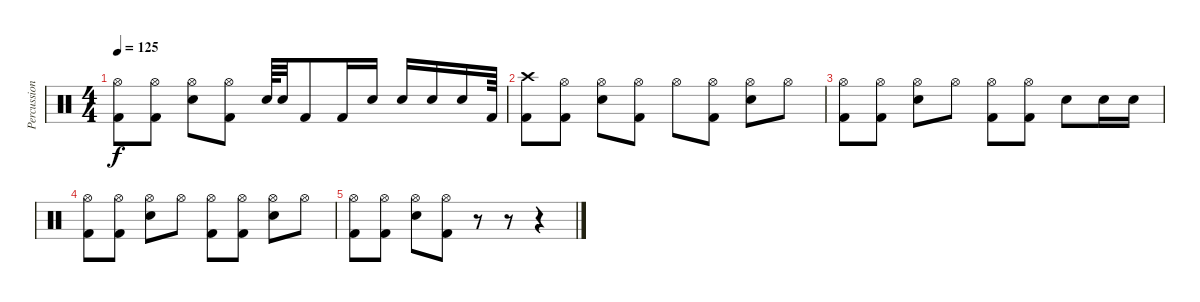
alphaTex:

\track ("Percussion" "Percussion") {instrument percussion}
\staff {score}
\articulation defaults
\ts (4 4)
\tempo 125
\clef neutral
\ks c
("Hi-Hat (open)" "Kick (hit) 2").8{dy f} ("Hi-Hat (open)" "Kick (hit) 2").8 ("Hi-Hat (open)" "Electric Snare (hit)").8 ("Hi-Hat (open)" "Kick (hit) 2").8 "Electric Snare (hit)".64 "Electric Snare (hit)".32 "Kick (hit) 2".8 "Kick (hit) 2".16 "Electric Snare (hit)".16 "Electric Snare (hit)".16 "Electric Snare (hit)".16 "Electric Snare (hit)".16 "Kick (hit) 2".64 |
("Crash high (hit)" "Kick (hit) 2").8 ("Hi-Hat (open)" "Kick (hit) 2").8 ("Hi-Hat (open)" "Electric Snare (hit)").8 ("Hi-Hat (open)" "Kick (hit) 2").8 "Hi-Hat (open)".8 ("Hi-Hat (open)" "Kick (hit) 2").8 ("Hi-Hat (open)" "Electric Snare (hit)").8 "Hi-Hat (open)".8 |
("Hi-Hat (open)" "Kick (hit) 2").8 ("Hi-Hat (open)" "Kick (hit) 2").8 ("Hi-Hat (open)" "Electric Snare (hit)").8 "Hi-Hat (open)".8 ("Hi-Hat (open)" "Kick (hit) 2").8 ("Hi-Hat (open)" "Kick (hit) 2").8 "Electric Snare (hit)".8 "Electric Snare (hit)".16 "Electric Snare (hit)".16 |
("Hi-Hat (open)" "Kick (hit) 2").8 ("Hi-Hat (open)" "Kick (hit) 2").8 ("Hi-Hat (open)" "Electric Snare (hit)").8 "Hi-Hat (open)".8 ("Hi-Hat (open)" "Kick (hit) 2").8 ("Hi-Hat (open)" "Kick (hit) 2").8 ("Hi-Hat (open)" "Electric Snare (hit)").8 "Hi-Hat (open)".8 |
("Hi-Hat (open)" "Kick (hit) 2").8 ("Hi-Hat (open)" "Kick (hit) 2").8 ("Hi-Hat (open)" "Electric Snare (hit)").8 ("Hi-Hat (open)" "Kick (hit) 2").8 r.8 r.8 r.4
